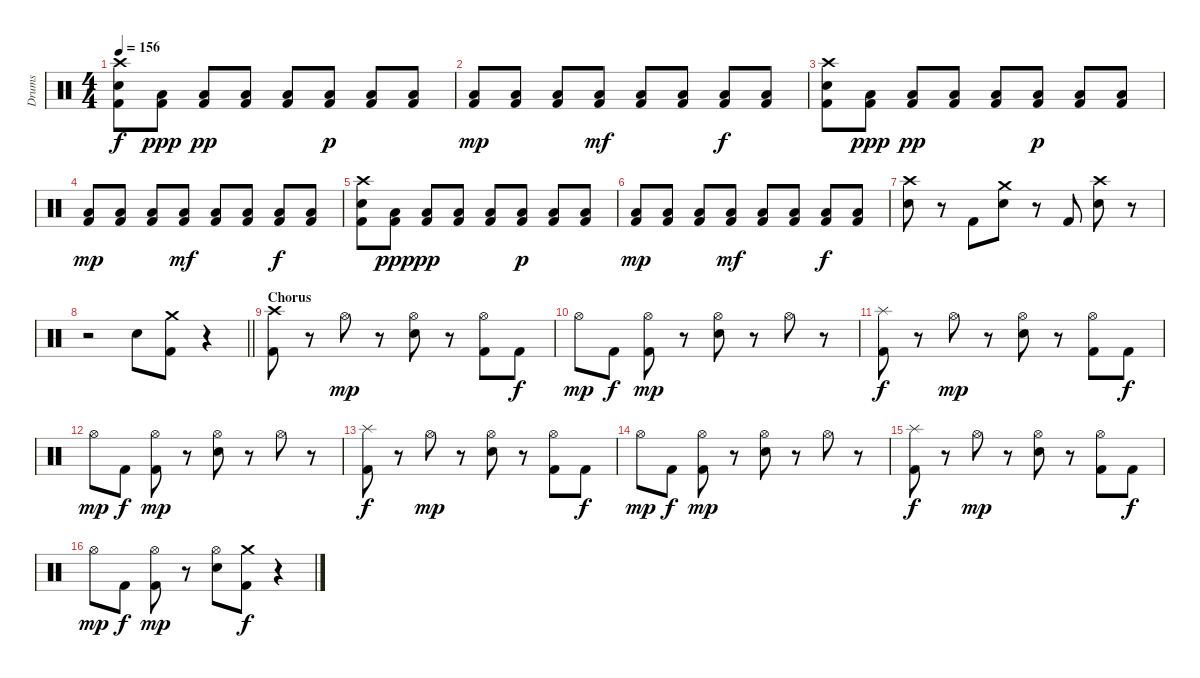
\track ("Drums" "Drums") {instrument percussion}
\staff {score}
\articulation defaults
\ts (4 4)
\tempo 156
\clef neutral
\ks c
("Kick (hit) 2" "Snare (hit) 2" "Crash high (hit)").8{dy f} ("Kick (hit) 2" "Low Floor Tom (hit)").8{dy ppp} ("Kick (hit) 2" "Low Floor Tom (hit)").8{dy pp} ("Kick (hit) 2" "Low Floor Tom (hit)").8 ("Kick (hit) 2" "Low Floor Tom (hit)").8 ("Kick (hit) 2" "Low Floor Tom (hit)").8{dy p} ("Kick (hit) 2" "Low Floor Tom (hit)").8 ("Kick (hit) 2" "Low Floor Tom (hit)").8 |
("Kick (hit) 2" "Low Floor Tom (hit)").8{dy mp} ("Kick (hit) 2" "Low Floor Tom (hit)").8 ("Kick (hit) 2" "Low Floor Tom (hit)").8 ("Kick (hit) 2" "Low Floor Tom (hit)").8{dy mf} ("Kick (hit) 2" "Low Floor Tom (hit)").8 ("Kick (hit) 2" "Low Floor Tom (hit)").8 ("Kick (hit) 2" "Low Floor Tom (hit)").8{dy f} ("Kick (hit) 2" "Low Floor Tom (hit)").8 |
("Kick (hit) 2" "Snare (hit) 2" "Crash high (hit)").8 ("Kick (hit) 2" "Low Floor Tom (hit)").8{dy ppp} ("Kick (hit) 2" "Low Floor Tom (hit)").8{dy pp} ("Kick (hit) 2" "Low Floor Tom (hit)").8 ("Kick (hit) 2" "Low Floor Tom (hit)").8 ("Kick (hit) 2" "Low Floor Tom (hit)").8{dy p} ("Kick (hit) 2" "Low Floor Tom (hit)").8 ("Kick (hit) 2" "Low Floor Tom (hit)").8 |
("Kick (hit) 2" "Low Floor Tom (hit)").8{dy mp} ("Kick (hit) 2" "Low Floor Tom (hit)").8 ("Kick (hit) 2" "Low Floor Tom (hit)").8 ("Kick (hit) 2" "Low Floor Tom (hit)").8{dy mf} ("Kick (hit) 2" "Low Floor Tom (hit)").8 ("Kick (hit) 2" "Low Floor Tom (hit)").8 ("Kick (hit) 2" "Low Floor Tom (hit)").8{dy f} ("Kick (hit) 2" "Low Floor Tom (hit)").8 |
("Kick (hit) 2" "Snare (hit) 2" "Crash high (hit)").8 ("Kick (hit) 2" "Low Floor Tom (hit)").8{dy ppp} ("Kick (hit) 2" "Low Floor Tom (hit)").8{dy pp} ("Kick (hit) 2" "Low Floor Tom (hit)").8 ("Kick (hit) 2" "Low Floor Tom (hit)").8 ("Kick (hit) 2" "Low Floor Tom (hit)").8{dy p} ("Kick (hit) 2" "Low Floor Tom (hit)").8 ("Kick (hit) 2" "Low Floor Tom (hit)").8 |
("Kick (hit) 2" "Low Floor Tom (hit)").8{dy mp} ("Kick (hit) 2" "Low Floor Tom (hit)").8 ("Kick (hit) 2" "Low Floor Tom (hit)").8 ("Kick (hit) 2" "Low Floor Tom (hit)").8{dy mf} ("Kick (hit) 2" "Low Floor Tom (hit)").8 ("Kick (hit) 2" "Low Floor Tom (hit)").8 ("Kick (hit) 2" "Low Floor Tom (hit)").8{dy f} ("Kick (hit) 2" "Low Floor Tom (hit)").8 |
("Snare (hit) 2" "Crash high (hit)").8 r.8 "Kick (hit) 2".8 ("Snare (hit) 2" "Crash medium (hit)").8 r.8 "Kick (hit) 2".8 ("Snare (hit) 2" "Crash high (hit)").8 r.8 |
\barLineRight lightlight
r.2 "Snare (hit) 2".8 ("Kick (hit) 2" "Crash medium (hit)").8 r.4 |
\section ("" "Chorus")
("Kick (hit) 2" "Crash high (hit)").8 r.8 "Hi-Hat (open)".8{dy mp} r.8 ("Snare (hit) 2" "Hi-Hat (open)").8 r.8 ("Kick (hit) 2" "Hi-Hat (open)").8 "Kick (hit) 2".8{dy f} |
"Hi-Hat (open)".8{dy mp} "Kick (hit) 2".8{dy f} ("Kick (hit) 2" "Hi-Hat (open)").8{dy mp} r.8 ("Snare (hit) 2" "Hi-Hat (open)").8 r.8 "Hi-Hat (open)".8 r.8 |
("Kick (hit) 2" "Splash (hit)").8{dy f} r.8 "Hi-Hat (open)".8{dy mp} r.8 ("Snare (hit) 2" "Hi-Hat (open)").8 r.8 ("Kick (hit) 2" "Hi-Hat (open)").8 "Kick (hit) 2".8{dy f} |
"Hi-Hat (open)".8{dy mp} "Kick (hit) 2".8{dy f} ("Kick (hit) 2" "Hi-Hat (open)").8{dy mp} r.8 ("Snare (hit) 2" "Hi-Hat (open)").8 r.8 "Hi-Hat (open)".8 r.8 |
("Kick (hit) 2" "Splash (hit)").8{dy f} r.8 "Hi-Hat (open)".8{dy mp} r.8 ("Snare (hit) 2" "Hi-Hat (open)").8 r.8 ("Kick (hit) 2" "Hi-Hat (open)").8 "Kick (hit) 2".8{dy f} |
"Hi-Hat (open)".8{dy mp} "Kick (hit) 2".8{dy f} ("Kick (hit) 2" "Hi-Hat (open)").8{dy mp} r.8 ("Snare (hit) 2" "Hi-Hat (open)").8 r.8 "Hi-Hat (open)".8 r.8 |
("Kick (hit) 2" "Splash (hit)").8{dy f} r.8 "Hi-Hat (open)".8{dy mp} r.8 ("Snare (hit) 2" "Hi-Hat (open)").8 r.8 ("Kick (hit) 2" "Hi-Hat (open)").8 "Kick (hit) 2".8{dy f} |
"Hi-Hat (open)".8{dy mp} "Kick (hit) 2".8{dy f} ("Kick (hit) 2" "Hi-Hat (open)").8{dy mp} r.8 ("Snare (hit) 2" "Hi-Hat (open)").8 ("Kick (hit) 2" "Crash medium (hit)").8{dy f} r.4
